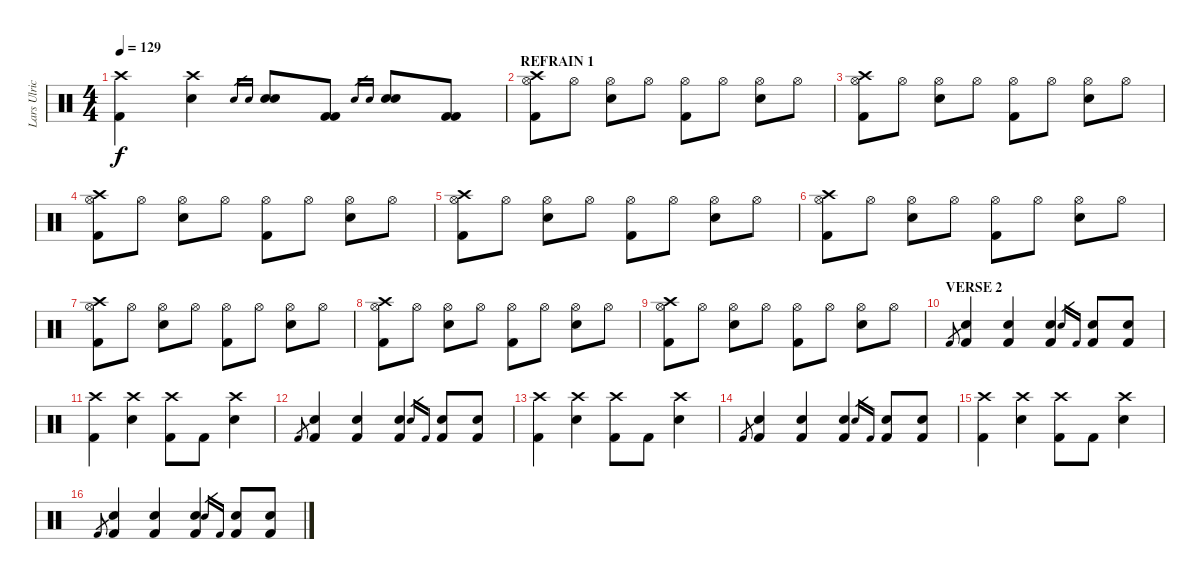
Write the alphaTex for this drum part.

\track ("Lars Ulrich [drums]" "Lars Ulric") {instrument percussion}
\staff {score}
\articulation defaults
\ts (4 4)
\tempo 129
\clef neutral
\ks c
("Kick (hit) 2" "Crash high (hit)").4{dy f} ("Snare (hit) 2" "Crash high (hit)").4 "Electric Snare (hit)".16{gr} "Snare (hit) 2".16{gr} ("Electric Snare (hit)" "Snare (hit) 2").8 ("Kick (hit) 2" "Kick (hit) 2").8 "Electric Snare (hit)".16{gr} "Snare (hit) 2".16{gr} ("Electric Snare (hit)" "Snare (hit) 2").8 ("Kick (hit) 2" "Kick (hit) 2").8 |
\section ("" "REFRAIN 1")
("Kick (hit) 2" "Crash high (hit)" "Hi-Hat (open)").8 "Hi-Hat (open)".8 ("Snare (hit) 2" "Hi-Hat (open)").8 "Hi-Hat (open)".8 ("Kick (hit) 2" "Hi-Hat (open)").8 "Hi-Hat (open)".8 ("Snare (hit) 2" "Hi-Hat (open)").8 "Hi-Hat (open)".8 |
("Kick (hit) 2" "Crash high (hit)" "Hi-Hat (open)").8 "Hi-Hat (open)".8 ("Snare (hit) 2" "Hi-Hat (open)").8 "Hi-Hat (open)".8 ("Kick (hit) 2" "Hi-Hat (open)").8 "Hi-Hat (open)".8 ("Snare (hit) 2" "Hi-Hat (open)").8 "Hi-Hat (open)".8 |
("Kick (hit) 2" "Crash high (hit)" "Hi-Hat (open)").8 "Hi-Hat (open)".8 ("Snare (hit) 2" "Hi-Hat (open)").8 "Hi-Hat (open)".8 ("Kick (hit) 2" "Hi-Hat (open)").8 "Hi-Hat (open)".8 ("Snare (hit) 2" "Hi-Hat (open)").8 "Hi-Hat (open)".8 |
("Kick (hit) 2" "Crash high (hit)" "Hi-Hat (open)").8 "Hi-Hat (open)".8 ("Snare (hit) 2" "Hi-Hat (open)").8 "Hi-Hat (open)".8 ("Kick (hit) 2" "Hi-Hat (open)").8 "Hi-Hat (open)".8 ("Snare (hit) 2" "Hi-Hat (open)").8 "Hi-Hat (open)".8 |
("Kick (hit) 2" "Crash high (hit)" "Hi-Hat (open)").8 "Hi-Hat (open)".8 ("Snare (hit) 2" "Hi-Hat (open)").8 "Hi-Hat (open)".8 ("Kick (hit) 2" "Hi-Hat (open)").8 "Hi-Hat (open)".8 ("Snare (hit) 2" "Hi-Hat (open)").8 "Hi-Hat (open)".8 |
("Kick (hit) 2" "Crash high (hit)" "Hi-Hat (open)").8 "Hi-Hat (open)".8 ("Snare (hit) 2" "Hi-Hat (open)").8 "Hi-Hat (open)".8 ("Kick (hit) 2" "Hi-Hat (open)").8 "Hi-Hat (open)".8 ("Snare (hit) 2" "Hi-Hat (open)").8 "Hi-Hat (open)".8 |
("Kick (hit) 2" "Crash high (hit)" "Hi-Hat (open)").8 "Hi-Hat (open)".8 ("Snare (hit) 2" "Hi-Hat (open)").8 "Hi-Hat (open)".8 ("Kick (hit) 2" "Hi-Hat (open)").8 "Hi-Hat (open)".8 ("Snare (hit) 2" "Hi-Hat (open)").8 "Hi-Hat (open)".8 |
("Kick (hit) 2" "Crash high (hit)" "Hi-Hat (open)").8 "Hi-Hat (open)".8 ("Snare (hit) 2" "Hi-Hat (open)").8 "Hi-Hat (open)".8 ("Kick (hit) 2" "Hi-Hat (open)").8 "Hi-Hat (open)".8 ("Snare (hit) 2" "Hi-Hat (open)").8 "Hi-Hat (open)".8 |
\section ("" "VERSE 2")
"Kick (hit) 2".8{gr} ("Electric Snare (hit)" "Kick (hit) 2").4 ("Electric Snare (hit)" "Kick (hit) 2").4 ("Electric Snare (hit)" "Kick (hit) 2").4 "Electric Snare (hit)".16{gr} "Kick (hit) 2".16{gr} ("Electric Snare (hit)" "Kick (hit) 2").8 ("Electric Snare (hit)" "Kick (hit) 2").8 |
("Kick (hit) 2" "Crash high (hit)").4 ("Snare (hit) 2" "Crash high (hit)").4 ("Kick (hit) 2" "Crash high (hit)").8 "Kick (hit) 2".8 ("Snare (hit) 2" "Crash high (hit)").4 |
"Kick (hit) 2".8{gr} ("Electric Snare (hit)" "Kick (hit) 2").4 ("Electric Snare (hit)" "Kick (hit) 2").4 ("Electric Snare (hit)" "Kick (hit) 2").4 "Electric Snare (hit)".16{gr} "Kick (hit) 2".16{gr} ("Electric Snare (hit)" "Kick (hit) 2").8 ("Electric Snare (hit)" "Kick (hit) 2").8 |
("Kick (hit) 2" "Crash high (hit)").4 ("Snare (hit) 2" "Crash high (hit)").4 ("Kick (hit) 2" "Crash high (hit)").8 "Kick (hit) 2".8 ("Snare (hit) 2" "Crash high (hit)").4 |
"Kick (hit) 2".8{gr} ("Electric Snare (hit)" "Kick (hit) 2").4 ("Electric Snare (hit)" "Kick (hit) 2").4 ("Electric Snare (hit)" "Kick (hit) 2").4 "Electric Snare (hit)".16{gr} "Kick (hit) 2".16{gr} ("Electric Snare (hit)" "Kick (hit) 2").8 ("Electric Snare (hit)" "Kick (hit) 2").8 |
("Kick (hit) 2" "Crash high (hit)").4 ("Snare (hit) 2" "Crash high (hit)").4 ("Kick (hit) 2" "Crash high (hit)").8 "Kick (hit) 2".8 ("Snare (hit) 2" "Crash high (hit)").4 |
"Kick (hit) 2".8{gr} ("Electric Snare (hit)" "Kick (hit) 2").4 ("Electric Snare (hit)" "Kick (hit) 2").4 ("Electric Snare (hit)" "Kick (hit) 2").4 "Electric Snare (hit)".16{gr} "Kick (hit) 2".16{gr} ("Electric Snare (hit)" "Kick (hit) 2").8 ("Electric Snare (hit)" "Kick (hit) 2").8
